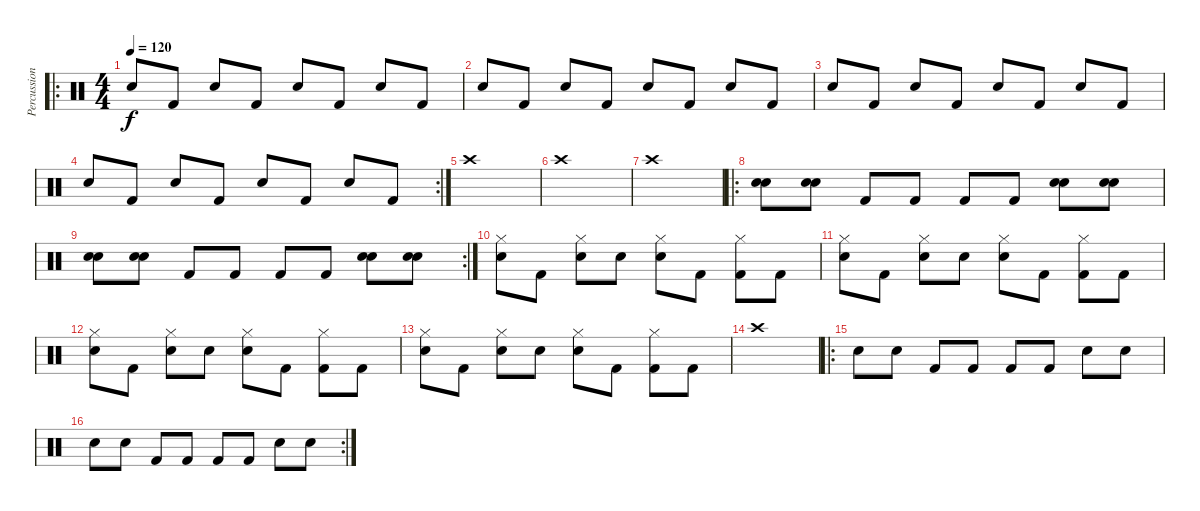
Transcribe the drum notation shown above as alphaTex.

\track ("Percussions" "Percussion") {instrument percussion}
\staff {score}
\articulation defaults
\ro
\ts (4 4)
\tempo 120
\clef neutral
\ks c "Snare (hit) 2".8{dy f} "Kick (hit) 2".8 "Snare (hit) 2".8 "Kick (hit) 2".8 "Snare (hit) 2".8 "Kick (hit) 2".8 "Snare (hit) 2".8 "Kick (hit) 2".8
|
"Snare (hit) 2".8 "Kick (hit) 2".8 "Snare (hit) 2".8 "Kick (hit) 2".8 "Snare (hit) 2".8 "Kick (hit) 2".8 "Snare (hit) 2".8 "Kick (hit) 2".8 |
"Snare (hit) 2".8 "Kick (hit) 2".8 "Snare (hit) 2".8 "Kick (hit) 2".8 "Snare (hit) 2".8 "Kick (hit) 2".8 "Snare (hit) 2".8 "Kick (hit) 2".8 |
\rc 2 "Snare (hit) 2".8 "Kick (hit) 2".8 "Snare (hit) 2".8 "Kick (hit) 2".8 "Snare (hit) 2".8 "Kick (hit) 2".8 "Snare (hit) 2".8 "Kick (hit) 2".8
|
"Crash high (hit)".1 |
"Crash high (hit)".1 |
"Crash high (hit)".1 |
\ro
("Snare (hit) 2" "Snare (hit) 2").8 ("Snare (hit) 2" "Snare (hit) 2").8 "Kick (hit) 2".8 "Kick (hit) 2".8 "Kick (hit) 2".8 "Kick (hit) 2".8 ("Snare (hit) 2" "Snare (hit) 2").8 ("Snare (hit) 2" "Snare (hit) 2").8 |
\rc 2
("Snare (hit) 2" "Snare (hit) 2").8 ("Snare (hit) 2" "Snare (hit) 2").8 "Kick (hit) 2".8 "Kick (hit) 2".8 "Kick (hit) 2".8 "Kick (hit) 2".8 ("Snare (hit) 2" "Snare (hit) 2").8 ("Snare (hit) 2" "Snare (hit) 2").8 |
("Hi-Hat (closed)" "Snare (hit) 2").8 "Kick (hit) 2".8 ("Hi-Hat (closed)" "Snare (hit) 2").8 "Snare (hit) 2".8 ("Hi-Hat (closed)" "Snare (hit) 2").8 "Kick (hit) 2".8 ("Hi-Hat (closed)" "Kick (hit) 2").8 "Kick (hit) 2".8 |
("Hi-Hat (closed)" "Snare (hit) 2").8 "Kick (hit) 2".8 ("Hi-Hat (closed)" "Snare (hit) 2").8 "Snare (hit) 2".8 ("Hi-Hat (closed)" "Snare (hit) 2").8 "Kick (hit) 2".8 ("Hi-Hat (closed)" "Kick (hit) 2").8 "Kick (hit) 2".8 |
("Hi-Hat (closed)" "Snare (hit) 2").8 "Kick (hit) 2".8 ("Hi-Hat (closed)" "Snare (hit) 2").8 "Snare (hit) 2".8 ("Hi-Hat (closed)" "Snare (hit) 2").8 "Kick (hit) 2".8 ("Hi-Hat (closed)" "Kick (hit) 2").8 "Kick (hit) 2".8 |
("Hi-Hat (closed)" "Snare (hit) 2").8 "Kick (hit) 2".8 ("Hi-Hat (closed)" "Snare (hit) 2").8 "Snare (hit) 2".8 ("Hi-Hat (closed)" "Snare (hit) 2").8 "Kick (hit) 2".8 ("Hi-Hat (closed)" "Kick (hit) 2").8 "Kick (hit) 2".8 |
"Crash high (hit)".1 |
\ro "Snare (hit) 2".8 "Snare (hit) 2".8 "Kick (hit) 2".8 "Kick (hit) 2".8 "Kick (hit) 2".8 "Kick (hit) 2".8 "Snare (hit) 2".8 "Snare (hit) 2".8
|
\rc 2 "Snare (hit) 2".8 "Snare (hit) 2".8 "Kick (hit) 2".8 "Kick (hit) 2".8 "Kick (hit) 2".8 "Kick (hit) 2".8 "Snare (hit) 2".8 "Snare (hit) 2".8
